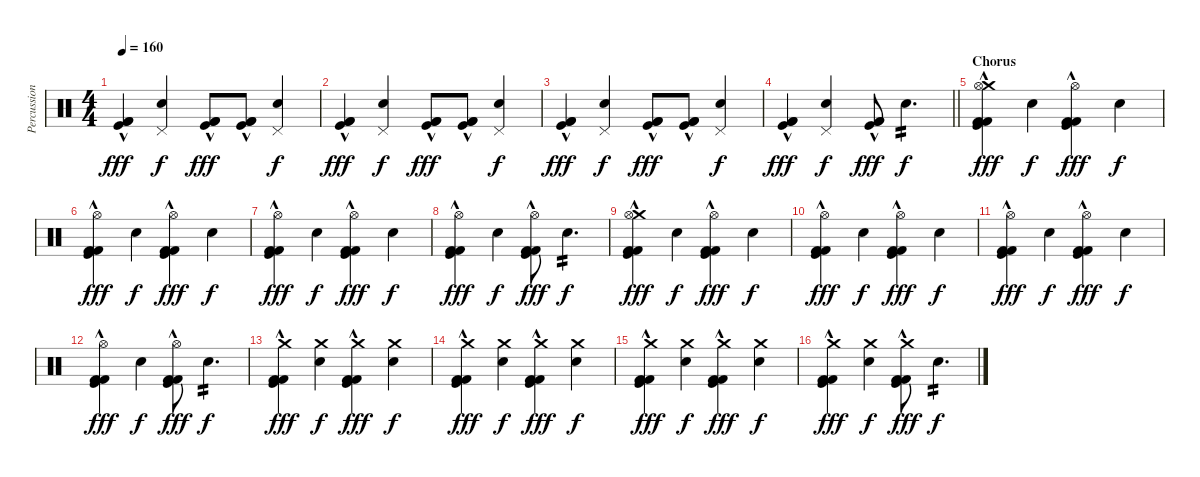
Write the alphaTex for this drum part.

\track ("Percussion" "Percussion") {instrument percussion}
\staff {score}
\articulation defaults
\ts (4 4)
\tempo 160
\clef neutral
\ks c
("Kick (hit) 2"{hac} "Kick (hit)"{hac} "Kick (hit) 2").4{dy fff} ("Snare (hit) 2" "Pedal Hi-Hat (hit)").4{dy f} ("Kick (hit) 2"{hac} "Kick (hit)"{hac} "Kick (hit) 2").8{dy fff} ("Kick (hit) 2"{hac} "Kick (hit)"{hac} "Kick (hit) 2"{hac}).8 ("Snare (hit) 2" "Pedal Hi-Hat (hit)").4{dy f} |
("Kick (hit) 2"{hac} "Kick (hit)"{hac} "Kick (hit) 2").4{dy fff} ("Snare (hit) 2" "Pedal Hi-Hat (hit)").4{dy f} ("Kick (hit) 2"{hac} "Kick (hit)"{hac} "Kick (hit) 2").8{dy fff} ("Kick (hit) 2"{hac} "Kick (hit)"{hac} "Kick (hit) 2"{hac}).8 ("Snare (hit) 2" "Pedal Hi-Hat (hit)").4{dy f} |
("Kick (hit) 2"{hac} "Kick (hit)"{hac} "Kick (hit) 2").4{dy fff} ("Snare (hit) 2" "Pedal Hi-Hat (hit)").4{dy f} ("Kick (hit) 2"{hac} "Kick (hit)"{hac} "Kick (hit) 2").8{dy fff} ("Kick (hit) 2"{hac} "Kick (hit)"{hac} "Kick (hit) 2"{hac}).8 ("Snare (hit) 2" "Pedal Hi-Hat (hit)").4{dy f} |
\barLineRight lightlight
("Kick (hit) 2"{hac} "Kick (hit)"{hac} "Kick (hit) 2").4{dy fff} ("Snare (hit) 2" "Pedal Hi-Hat (hit)").4{dy f} ("Kick (hit) 2"{hac} "Kick (hit)"{hac} "Kick (hit) 2").8{dy fff} "Snare (hit) 2".4{d tp 2 dy f} |
\section ("" "Chorus")
("Crash medium (hit)" "Hi-Hat (open)" "Kick (hit) 2"{hac} "Kick (hit)"{hac} "Kick (hit) 2").4{dy fff} "Snare (hit) 2".4{dy f} ("Hi-Hat (open)" "Kick (hit) 2"{hac} "Kick (hit)"{hac} "Kick (hit) 2").4{dy fff} "Snare (hit) 2".4{dy f} |
("Hi-Hat (open)" "Kick (hit) 2"{hac} "Kick (hit)"{hac} "Kick (hit) 2").4{dy fff} "Snare (hit) 2".4{dy f} ("Hi-Hat (open)" "Kick (hit) 2"{hac} "Kick (hit)"{hac} "Kick (hit) 2").4{dy fff} "Snare (hit) 2".4{dy f} |
("Hi-Hat (open)" "Kick (hit) 2"{hac} "Kick (hit)"{hac} "Kick (hit) 2").4{dy fff} "Snare (hit) 2".4{dy f} ("Hi-Hat (open)" "Kick (hit) 2"{hac} "Kick (hit)"{hac} "Kick (hit) 2").4{dy fff} "Snare (hit) 2".4{dy f} |
("Hi-Hat (open)" "Kick (hit) 2"{hac} "Kick (hit)"{hac} "Kick (hit) 2").4{dy fff} "Snare (hit) 2".4{dy f} ("Hi-Hat (open)" "Kick (hit) 2"{hac} "Kick (hit)"{hac} "Kick (hit) 2").8{dy fff} "Snare (hit) 2".4{d tp 2 dy f} |
("Crash medium (hit)" "Hi-Hat (open)" "Kick (hit) 2"{hac} "Kick (hit)"{hac} "Kick (hit) 2").4{dy fff} "Snare (hit) 2".4{dy f} ("Hi-Hat (open)" "Kick (hit) 2"{hac} "Kick (hit)"{hac} "Kick (hit) 2").4{dy fff} "Snare (hit) 2".4{dy f} |
("Hi-Hat (open)" "Kick (hit) 2"{hac} "Kick (hit)"{hac} "Kick (hit) 2").4{dy fff} "Snare (hit) 2".4{dy f} ("Hi-Hat (open)" "Kick (hit) 2"{hac} "Kick (hit)"{hac} "Kick (hit) 2").4{dy fff} "Snare (hit) 2".4{dy f} |
("Hi-Hat (open)" "Kick (hit) 2"{hac} "Kick (hit)"{hac} "Kick (hit) 2").4{dy fff} "Snare (hit) 2".4{dy f} ("Hi-Hat (open)" "Kick (hit) 2"{hac} "Kick (hit)"{hac} "Kick (hit) 2").4{dy fff} "Snare (hit) 2".4{dy f} |
("Hi-Hat (open)" "Kick (hit) 2"{hac} "Kick (hit)"{hac} "Kick (hit) 2").4{dy fff} "Snare (hit) 2".4{dy f} ("Hi-Hat (open)" "Kick (hit) 2"{hac} "Kick (hit)"{hac} "Kick (hit) 2").8{dy fff} "Snare (hit) 2".4{d tp 2 dy f} |
("Crash medium (hit)" "Kick (hit) 2"{hac} "Kick (hit)"{hac} "Kick (hit) 2").4{dy fff} ("Crash medium (hit)" "Snare (hit) 2").4{dy f} ("Crash medium (hit)" "Kick (hit) 2"{hac} "Kick (hit)"{hac} "Kick (hit) 2").4{dy fff} ("Crash medium (hit)" "Snare (hit) 2").4{dy f} |
("Crash medium (hit)" "Kick (hit) 2"{hac} "Kick (hit)"{hac} "Kick (hit) 2").4{dy fff} ("Crash medium (hit)" "Snare (hit) 2").4{dy f} ("Crash medium (hit)" "Kick (hit) 2"{hac} "Kick (hit)"{hac} "Kick (hit) 2").4{dy fff} ("Crash medium (hit)" "Snare (hit) 2").4{dy f} |
("Crash medium (hit)" "Kick (hit) 2"{hac} "Kick (hit)"{hac} "Kick (hit) 2").4{dy fff} ("Crash medium (hit)" "Snare (hit) 2").4{dy f} ("Crash medium (hit)" "Kick (hit) 2"{hac} "Kick (hit)"{hac} "Kick (hit) 2").4{dy fff} ("Crash medium (hit)" "Snare (hit) 2").4{dy f} |
("Crash medium (hit)" "Kick (hit) 2"{hac} "Kick (hit)"{hac} "Kick (hit) 2").4{dy fff} ("Crash medium (hit)" "Snare (hit) 2").4{dy f} ("Crash medium (hit)" "Kick (hit) 2"{hac} "Kick (hit)"{hac} "Kick (hit) 2").8{dy fff} "Snare (hit) 2".4{d tp 2 dy f}
